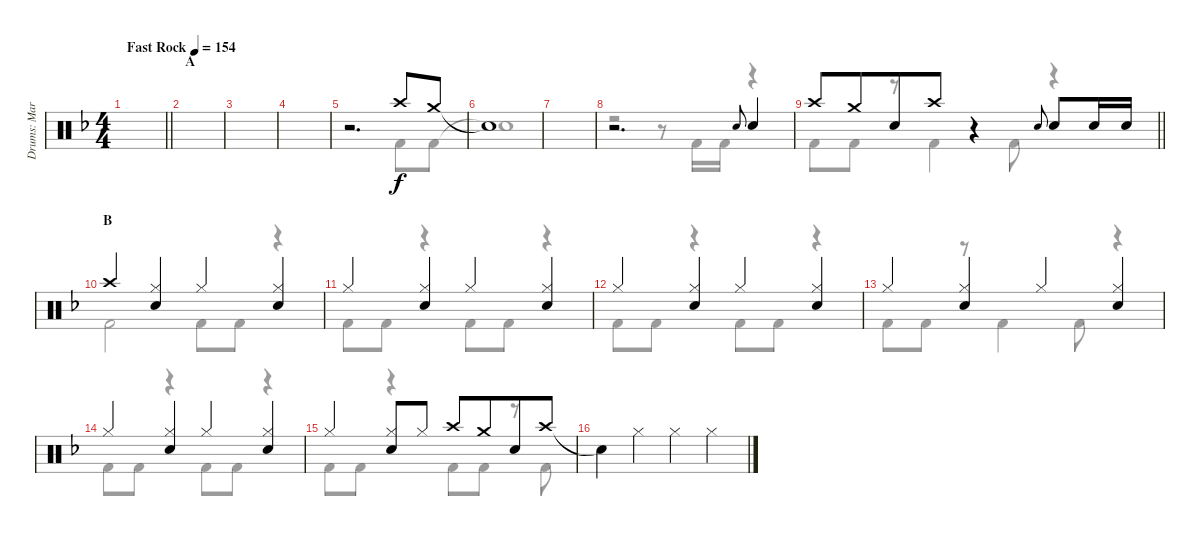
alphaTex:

\track ("Drums: Mark" "Drums: Mar") {instrument percussion}
\staff {score}
\articulation defaults
\voice
\ts (4 4)
\tempo (154 "Fast Rock")
\clef neutral
\barLineRight lightlight
\ks f
|
\section ("" "A")
|
|
|
r.2{d} "Crash high (hit)".8 "Crash medium (hit)".8 |
"Snare (hit)"{t}.1 |
|
r.2{d} "Electric Snare (hit)".8{gr onbeat} "Snare (hit) 2".4 |
\barLineRight lightlight "Crash high (hit)".8 "Crash medium (hit)".8{beam merge} "Snare (hit) 2".8 "Crash high (hit)".8
r.4 "Electric Snare (hit)".8{gr onbeat} "Snare (hit) 2".8 "Snare (hit) 2".16 "Snare (hit) 2".16 |
\section ("" "B")
"Crash high (hit)".4 ("Hi-Hat (closed)" "Snare (hit) 2").4 "Hi-Hat (closed)".4 ("Hi-Hat (closed)" "Snare (hit) 2").4 |
"Hi-Hat (closed)".4 ("Hi-Hat (closed)" "Snare (hit) 2").4 "Hi-Hat (closed)".4 ("Hi-Hat (closed)" "Snare (hit) 2").4 |
"Hi-Hat (closed)".4 ("Hi-Hat (closed)" "Snare (hit) 2").4 "Hi-Hat (closed)".4 ("Hi-Hat (closed)" "Snare (hit) 2").4 |
"Hi-Hat (closed)".4 ("Hi-Hat (closed)" "Snare (hit) 2").4 "Hi-Hat (closed)".4 ("Hi-Hat (closed)" "Snare (hit) 2").4 |
"Hi-Hat (closed)".4 ("Hi-Hat (closed)" "Snare (hit) 2").4 "Hi-Hat (closed)".4 ("Hi-Hat (closed)" "Snare (hit) 2").4 |
"Hi-Hat (closed)".4 ("Hi-Hat (closed)" "Snare (hit) 2").8 "Hi-Hat (closed)".8 "Crash high (hit)".8 "Crash medium (hit)".8{beam merge} "Snare (hit) 2".8 "Crash high (hit)".8 |
"Snare (hit)"{t}.4 "Hi-Hat (closed)".4 "Hi-Hat (closed)".4 "Hi-Hat (closed)".4
\voice
\clef neutral
\ottava regular
\simile none
\barLineRight lightlight
\ks f
|
|
|
|
r.2{d} "Kick (hit) 2".8 "Kick (hit) 2".8 |
"Snare (hit)"{t}.1 |
|
r.2 r.8 "Kick (hit) 2".16 "Kick (hit) 2".16 r.4 |
\barLineRight lightlight "Kick (hit) 2".8 "Kick (hit) 2".8
r.8 "Kick (hit) 2".4 "Kick (hit) 2".8 r.4 |
"Kick (hit) 2".2 "Kick (hit) 2".8 "Kick (hit) 2".8 r.4 |
"Kick (hit) 2".8 "Kick (hit) 2".8 r.4 "Kick (hit) 2".8 "Kick (hit) 2".8 r.4 |
"Kick (hit) 2".8 "Kick (hit) 2".8 r.4 "Kick (hit) 2".8 "Kick (hit) 2".8 r.4 |
"Kick (hit) 2".8 "Kick (hit) 2".8 r.8 "Kick (hit) 2".4 "Kick (hit) 2".8 r.4 |
"Kick (hit) 2".8 "Kick (hit) 2".8 r.4 "Kick (hit) 2".8 "Kick (hit) 2".8 r.4 |
"Kick (hit) 2".8 "Kick (hit) 2".8 r.4 "Kick (hit) 2".8 "Kick (hit) 2".8 r.8 "Kick (hit) 2".8 |
